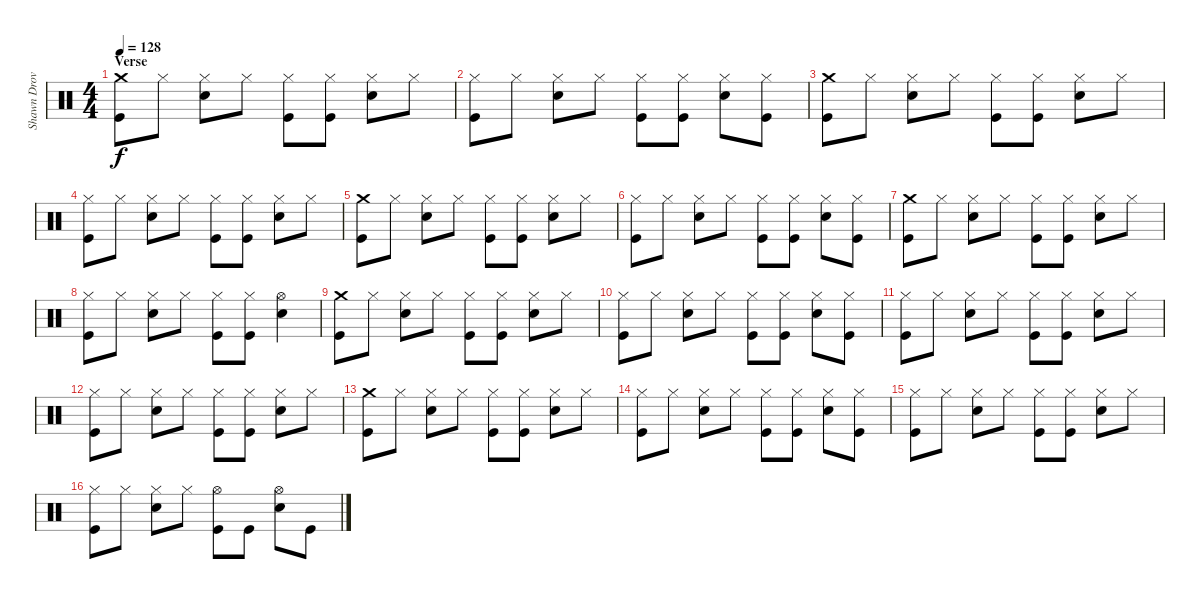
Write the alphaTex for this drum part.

\track ("Shawn Drover" "Shawn Drov") {instrument percussion}
\staff {score}
\articulation defaults
\ts (4 4)
\section ("" "Verse")
\tempo 128
\clef neutral
\ks c
("Crash medium (hit)" "Kick (hit)").8{dy f} "Hi-Hat (closed)".8 ("Hi-Hat (closed)" "Snare (hit) 2").8 "Hi-Hat (closed)".8 ("Hi-Hat (closed)" "Kick (hit)").8 ("Hi-Hat (closed)" "Kick (hit)").8 ("Hi-Hat (closed)" "Snare (hit) 2").8 "Hi-Hat (closed)".8 |
("Hi-Hat (closed)" "Kick (hit)").8 "Hi-Hat (closed)".8 ("Hi-Hat (closed)" "Snare (hit) 2").8 "Hi-Hat (closed)".8 ("Hi-Hat (closed)" "Kick (hit)").8 ("Hi-Hat (closed)" "Kick (hit)").8 ("Hi-Hat (closed)" "Snare (hit) 2").8 ("Hi-Hat (closed)" "Kick (hit)").8 |
("Crash medium (hit)" "Kick (hit)").8 "Hi-Hat (closed)".8 ("Hi-Hat (closed)" "Snare (hit) 2").8 "Hi-Hat (closed)".8 ("Hi-Hat (closed)" "Kick (hit)").8 ("Hi-Hat (closed)" "Kick (hit)").8 ("Hi-Hat (closed)" "Snare (hit) 2").8 "Hi-Hat (closed)".8 |
("Hi-Hat (closed)" "Kick (hit)").8 "Hi-Hat (closed)".8 ("Hi-Hat (closed)" "Snare (hit) 2").8 "Hi-Hat (closed)".8 ("Hi-Hat (closed)" "Kick (hit)").8 ("Hi-Hat (closed)" "Kick (hit)").8 ("Hi-Hat (closed)" "Snare (hit) 2").8 "Hi-Hat (closed)".8 |
("Crash medium (hit)" "Kick (hit)").8 "Hi-Hat (closed)".8 ("Hi-Hat (closed)" "Snare (hit) 2").8 "Hi-Hat (closed)".8 ("Hi-Hat (closed)" "Kick (hit)").8 ("Hi-Hat (closed)" "Kick (hit)").8 ("Hi-Hat (closed)" "Snare (hit) 2").8 "Hi-Hat (closed)".8 |
("Hi-Hat (closed)" "Kick (hit)").8 "Hi-Hat (closed)".8 ("Hi-Hat (closed)" "Snare (hit) 2").8 "Hi-Hat (closed)".8 ("Hi-Hat (closed)" "Kick (hit)").8 ("Hi-Hat (closed)" "Kick (hit)").8 ("Hi-Hat (closed)" "Snare (hit) 2").8 ("Hi-Hat (closed)" "Kick (hit)").8 |
("Crash medium (hit)" "Kick (hit)").8 "Hi-Hat (closed)".8 ("Hi-Hat (closed)" "Snare (hit) 2").8 "Hi-Hat (closed)".8 ("Hi-Hat (closed)" "Kick (hit)").8 ("Hi-Hat (closed)" "Kick (hit)").8 ("Hi-Hat (closed)" "Snare (hit) 2").8 "Hi-Hat (closed)".8 |
("Hi-Hat (closed)" "Kick (hit)").8 "Hi-Hat (closed)".8 ("Hi-Hat (closed)" "Snare (hit) 2").8 "Hi-Hat (closed)".8 ("Hi-Hat (closed)" "Kick (hit)").8 ("Hi-Hat (closed)" "Kick (hit)").8 ("Hi-Hat (open)" "Snare (hit) 2").4 |
("Crash medium (hit)" "Kick (hit)").8 "Hi-Hat (closed)".8 ("Hi-Hat (closed)" "Snare (hit) 2").8 "Hi-Hat (closed)".8 ("Hi-Hat (closed)" "Kick (hit)").8 ("Hi-Hat (closed)" "Kick (hit)").8 ("Hi-Hat (closed)" "Snare (hit) 2").8 "Hi-Hat (closed)".8 |
("Hi-Hat (closed)" "Kick (hit)").8 "Hi-Hat (closed)".8 ("Hi-Hat (closed)" "Snare (hit) 2").8 "Hi-Hat (closed)".8 ("Hi-Hat (closed)" "Kick (hit)").8 ("Hi-Hat (closed)" "Kick (hit)").8 ("Hi-Hat (closed)" "Snare (hit) 2").8 ("Hi-Hat (closed)" "Kick (hit)").8 |
("Hi-Hat (closed)" "Kick (hit)").8 "Hi-Hat (closed)".8 ("Hi-Hat (closed)" "Snare (hit) 2").8 "Hi-Hat (closed)".8 ("Hi-Hat (closed)" "Kick (hit)").8 ("Hi-Hat (closed)" "Kick (hit)").8 ("Hi-Hat (closed)" "Snare (hit) 2").8 "Hi-Hat (closed)".8 |
("Hi-Hat (closed)" "Kick (hit)").8 "Hi-Hat (closed)".8 ("Hi-Hat (closed)" "Snare (hit) 2").8 "Hi-Hat (closed)".8 ("Hi-Hat (closed)" "Kick (hit)").8 ("Hi-Hat (closed)" "Kick (hit)").8 ("Hi-Hat (closed)" "Snare (hit) 2").8 "Hi-Hat (closed)".8 |
("Crash medium (hit)" "Kick (hit)").8 "Hi-Hat (closed)".8 ("Hi-Hat (closed)" "Snare (hit) 2").8 "Hi-Hat (closed)".8 ("Hi-Hat (closed)" "Kick (hit)").8 ("Hi-Hat (closed)" "Kick (hit)").8 ("Hi-Hat (closed)" "Snare (hit) 2").8 "Hi-Hat (closed)".8 |
("Hi-Hat (closed)" "Kick (hit)").8 "Hi-Hat (closed)".8 ("Hi-Hat (closed)" "Snare (hit) 2").8 "Hi-Hat (closed)".8 ("Hi-Hat (closed)" "Kick (hit)").8 ("Hi-Hat (closed)" "Kick (hit)").8 ("Hi-Hat (closed)" "Snare (hit) 2").8 ("Hi-Hat (closed)" "Kick (hit)").8 |
("Hi-Hat (closed)" "Kick (hit)").8 "Hi-Hat (closed)".8 ("Hi-Hat (closed)" "Snare (hit) 2").8 "Hi-Hat (closed)".8 ("Hi-Hat (closed)" "Kick (hit)").8 ("Hi-Hat (closed)" "Kick (hit)").8 ("Hi-Hat (closed)" "Snare (hit) 2").8 "Hi-Hat (closed)".8 |
("Hi-Hat (closed)" "Kick (hit)").8 "Hi-Hat (closed)".8 ("Hi-Hat (closed)" "Snare (hit) 2").8 "Hi-Hat (closed)".8 ("Hi-Hat (open)" "Kick (hit)").8 "Kick (hit)".8 ("Hi-Hat (open)" "Snare (hit) 2").8 "Kick (hit)".8
